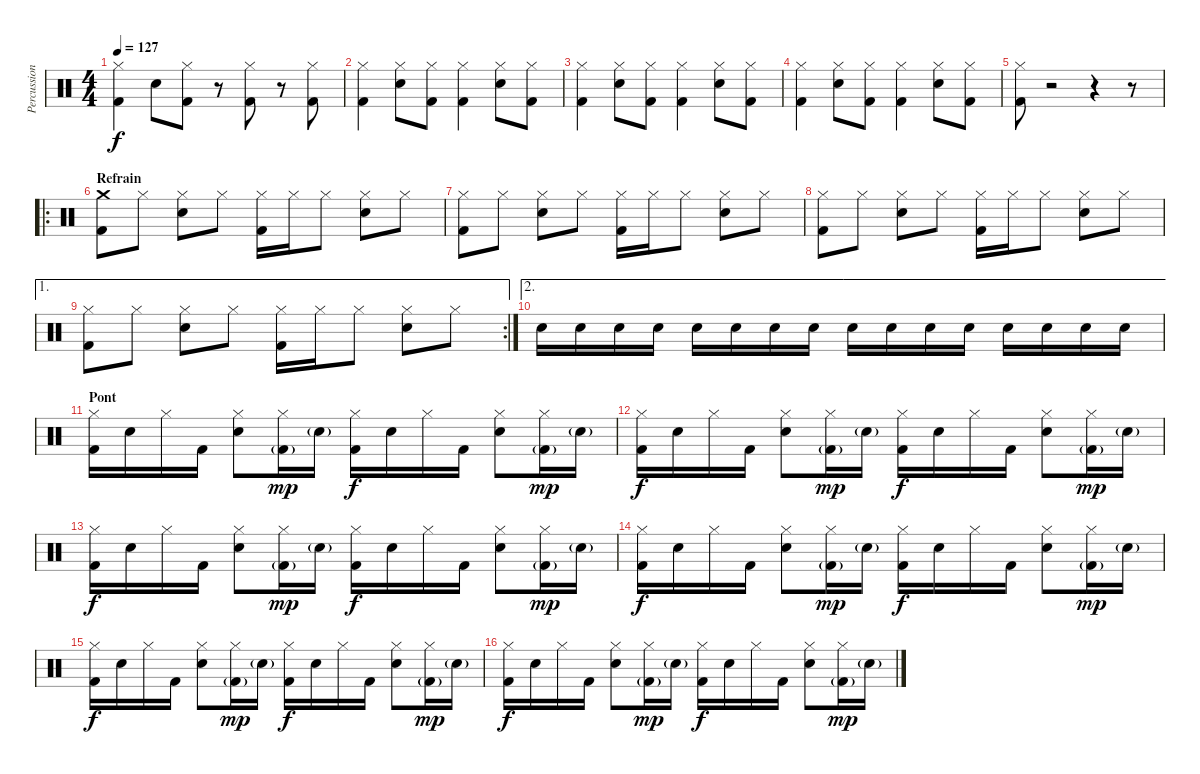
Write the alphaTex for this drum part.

\track ("Percussions" "Percussion") {instrument percussion}
\staff {score}
\articulation defaults
\ts (4 4)
\tempo 127
\clef neutral
\ks c
("Hi-Hat (closed)" "Kick (hit) 2").4{dy f} "Electric Snare (hit)".8 ("Hi-Hat (closed)" "Kick (hit) 2").8 r.8 ("Hi-Hat (closed)" "Kick (hit) 2").8 r.8 ("Hi-Hat (closed)" "Kick (hit) 2").8 |
("Hi-Hat (closed)" "Kick (hit) 2").4 ("Hi-Hat (closed)" "Electric Snare (hit)").8 ("Hi-Hat (closed)" "Kick (hit) 2").8 ("Hi-Hat (closed)" "Kick (hit) 2").4 ("Hi-Hat (closed)" "Electric Snare (hit)").8 ("Hi-Hat (closed)" "Kick (hit) 2").8 |
("Hi-Hat (closed)" "Kick (hit) 2").4 ("Hi-Hat (closed)" "Electric Snare (hit)").8 ("Hi-Hat (closed)" "Kick (hit) 2").8 ("Hi-Hat (closed)" "Kick (hit) 2").4 ("Hi-Hat (closed)" "Electric Snare (hit)").8 ("Hi-Hat (closed)" "Kick (hit) 2").8 |
("Hi-Hat (closed)" "Kick (hit) 2").4 ("Hi-Hat (closed)" "Electric Snare (hit)").8 ("Hi-Hat (closed)" "Kick (hit) 2").8 ("Hi-Hat (closed)" "Kick (hit) 2").4 ("Hi-Hat (closed)" "Electric Snare (hit)").8 ("Hi-Hat (closed)" "Kick (hit) 2").8 |
("Hi-Hat (closed)" "Kick (hit) 2").8 r.2 r.4 r.8 |
\ro
\section ("" "Refrain")
("Crash medium (hit)" "Kick (hit) 2").8 "Hi-Hat (closed)".8 ("Hi-Hat (closed)" "Electric Snare (hit)").8 "Hi-Hat (closed)".8 ("Hi-Hat (closed)" "Kick (hit) 2").16 "Hi-Hat (closed)".16 "Hi-Hat (closed)".8 ("Hi-Hat (closed)" "Electric Snare (hit)").8 "Hi-Hat (closed)".8 |
("Hi-Hat (closed)" "Kick (hit) 2").8 "Hi-Hat (closed)".8 ("Hi-Hat (closed)" "Electric Snare (hit)").8 "Hi-Hat (closed)".8 ("Hi-Hat (closed)" "Kick (hit) 2").16 "Hi-Hat (closed)".16 "Hi-Hat (closed)".8 ("Hi-Hat (closed)" "Electric Snare (hit)").8 "Hi-Hat (closed)".8 |
("Hi-Hat (closed)" "Kick (hit) 2").8 "Hi-Hat (closed)".8 ("Hi-Hat (closed)" "Electric Snare (hit)").8 "Hi-Hat (closed)".8 ("Hi-Hat (closed)" "Kick (hit) 2").16 "Hi-Hat (closed)".16 "Hi-Hat (closed)".8 ("Hi-Hat (closed)" "Electric Snare (hit)").8 "Hi-Hat (closed)".8 |
\ae 1
\rc 2
("Hi-Hat (closed)" "Kick (hit) 2").8 "Hi-Hat (closed)".8 ("Hi-Hat (closed)" "Electric Snare (hit)").8 "Hi-Hat (closed)".8 ("Hi-Hat (closed)" "Kick (hit) 2").16 "Hi-Hat (closed)".16 "Hi-Hat (closed)".8 ("Hi-Hat (closed)" "Electric Snare (hit)").8 "Hi-Hat (closed)".8 |
\ae 2 "Electric Snare (hit)".16 "Electric Snare (hit)".16 "Electric Snare (hit)".16 "Electric Snare (hit)".16 "Electric Snare (hit)".16 "Electric Snare (hit)".16 "Electric Snare (hit)".16 "Electric Snare (hit)".16 "Electric Snare (hit)".16 "Electric Snare (hit)".16 "Electric Snare (hit)".16 "Electric Snare (hit)".16 "Electric Snare (hit)".16 "Electric Snare (hit)".16 "Electric Snare (hit)".16 "Electric Snare (hit)".16
|
\section ("" "Pont")
("Hi-Hat (closed)" "Kick (hit) 2").16 "Electric Snare (hit)".16 "Hi-Hat (closed)".16 "Kick (hit) 2".16 ("Hi-Hat (closed)" "Electric Snare (hit)").8 ("Hi-Hat (closed)" "Kick (hit) 2"{g}).16{dy mp} "Electric Snare (hit)"{g}.16 ("Hi-Hat (closed)" "Kick (hit) 2").16{dy f} "Electric Snare (hit)".16 "Hi-Hat (closed)".16 "Kick (hit) 2".16 ("Hi-Hat (closed)" "Electric Snare (hit)").8 ("Hi-Hat (closed)" "Kick (hit) 2"{g}).16{dy mp} "Electric Snare (hit)"{g}.16 |
("Hi-Hat (closed)" "Kick (hit) 2").16{dy f} "Electric Snare (hit)".16 "Hi-Hat (closed)".16 "Kick (hit) 2".16 ("Hi-Hat (closed)" "Electric Snare (hit)").8 ("Hi-Hat (closed)" "Kick (hit) 2"{g}).16{dy mp} "Electric Snare (hit)"{g}.16 ("Hi-Hat (closed)" "Kick (hit) 2").16{dy f} "Electric Snare (hit)".16 "Hi-Hat (closed)".16 "Kick (hit) 2".16 ("Hi-Hat (closed)" "Electric Snare (hit)").8 ("Hi-Hat (closed)" "Kick (hit) 2"{g}).16{dy mp} "Electric Snare (hit)"{g}.16 |
("Hi-Hat (closed)" "Kick (hit) 2").16{dy f} "Electric Snare (hit)".16 "Hi-Hat (closed)".16 "Kick (hit) 2".16 ("Hi-Hat (closed)" "Electric Snare (hit)").8 ("Hi-Hat (closed)" "Kick (hit) 2"{g}).16{dy mp} "Electric Snare (hit)"{g}.16 ("Hi-Hat (closed)" "Kick (hit) 2").16{dy f} "Electric Snare (hit)".16 "Hi-Hat (closed)".16 "Kick (hit) 2".16 ("Hi-Hat (closed)" "Electric Snare (hit)").8 ("Hi-Hat (closed)" "Kick (hit) 2"{g}).16{dy mp} "Electric Snare (hit)"{g}.16 |
("Hi-Hat (closed)" "Kick (hit) 2").16{dy f} "Electric Snare (hit)".16 "Hi-Hat (closed)".16 "Kick (hit) 2".16 ("Hi-Hat (closed)" "Electric Snare (hit)").8 ("Hi-Hat (closed)" "Kick (hit) 2"{g}).16{dy mp} "Electric Snare (hit)"{g}.16 ("Hi-Hat (closed)" "Kick (hit) 2").16{dy f} "Electric Snare (hit)".16 "Hi-Hat (closed)".16 "Kick (hit) 2".16 ("Hi-Hat (closed)" "Electric Snare (hit)").8 ("Hi-Hat (closed)" "Kick (hit) 2"{g}).16{dy mp} "Electric Snare (hit)"{g}.16 |
("Hi-Hat (closed)" "Kick (hit) 2").16{dy f} "Electric Snare (hit)".16 "Hi-Hat (closed)".16 "Kick (hit) 2".16 ("Hi-Hat (closed)" "Electric Snare (hit)").8 ("Hi-Hat (closed)" "Kick (hit) 2"{g}).16{dy mp} "Electric Snare (hit)"{g}.16 ("Hi-Hat (closed)" "Kick (hit) 2").16{dy f} "Electric Snare (hit)".16 "Hi-Hat (closed)".16 "Kick (hit) 2".16 ("Hi-Hat (closed)" "Electric Snare (hit)").8 ("Hi-Hat (closed)" "Kick (hit) 2"{g}).16{dy mp} "Electric Snare (hit)"{g}.16 |
("Hi-Hat (closed)" "Kick (hit) 2").16{dy f} "Electric Snare (hit)".16 "Hi-Hat (closed)".16 "Kick (hit) 2".16 ("Hi-Hat (closed)" "Electric Snare (hit)").8 ("Hi-Hat (closed)" "Kick (hit) 2"{g}).16{dy mp} "Electric Snare (hit)"{g}.16 ("Hi-Hat (closed)" "Kick (hit) 2").16{dy f} "Electric Snare (hit)".16 "Hi-Hat (closed)".16 "Kick (hit) 2".16 ("Hi-Hat (closed)" "Electric Snare (hit)").8 ("Hi-Hat (closed)" "Kick (hit) 2"{g}).16{dy mp} "Electric Snare (hit)"{g}.16
